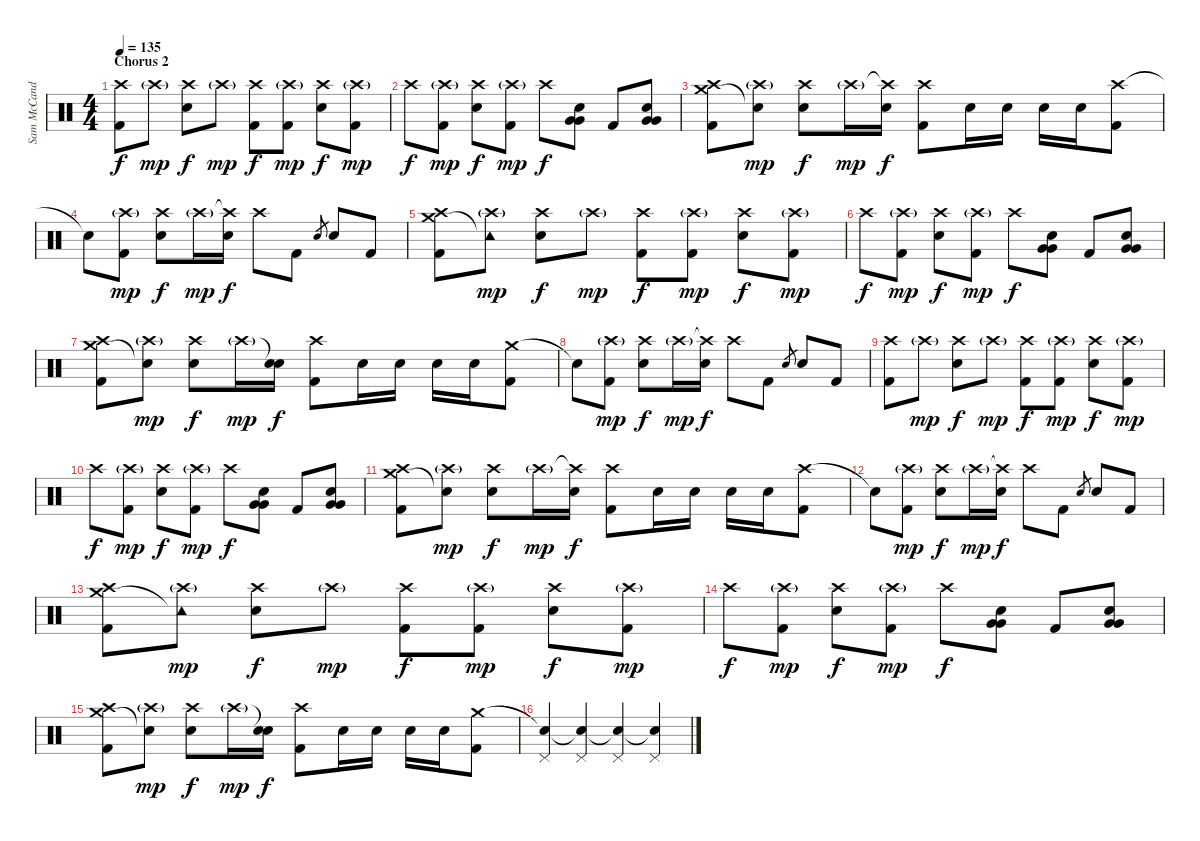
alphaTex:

\track ("Sam McCandless (Drums)" "Sam McCand") {instrument percussion}
\staff {score}
\articulation defaults
\ts (4 4)
\section ("" "Chorus 2")
\tempo 135
\clef neutral
\ks c
("Crash high (hit)" "Kick (hit) 2").8{dy f} "Crash high (hit)"{g}.8{dy mp} ("Crash high (hit)" "Electric Snare (hit)").8{dy f} "Crash high (hit)"{g}.8{dy mp} ("Crash high (hit)" "Kick (hit) 2").8{dy f} ("Crash high (hit)"{g} "Kick (hit) 2").8{dy mp} ("Crash high (hit)" "Electric Snare (hit)").8{dy f} ("Crash high (hit)"{g} "Kick (hit) 2").8{dy mp} |
"Crash high (hit)".8{dy f} ("Crash high (hit)"{g} "Kick (hit) 2").8{dy mp} ("Crash high (hit)" "Electric Snare (hit)").8{dy f} ("Crash high (hit)"{g} "Kick (hit) 2").8{dy mp} "Crash high (hit)".8{dy f} ("Electric Snare (hit)" "Very Low Tom (hit)" "Very Low Tom (hit)").8 "Kick (hit) 2".8 ("Electric Snare (hit)" "Very Low Tom (hit)" "Very Low Tom (hit)").8 |
("Crash high (hit)" "Crash medium (hit)" "Kick (hit) 2").8 ("Crash high (hit)"{g} "Snare (hit)"{t}).8{dy mp} ("Crash high (hit)" "Electric Snare (hit)").8{dy f} "Crash high (hit)"{g}.16{dy mp} ("Crash high (hit)"{t} "Electric Snare (hit)").16{dy f} ("Crash high (hit)" "Kick (hit) 2").8 "Electric Snare (hit)".16 "Electric Snare (hit)".16 "Electric Snare (hit)".16 "Electric Snare (hit)".16 ("Crash high (hit)" "Kick (hit) 2").8 |
"Snare (hit)"{t}.8 ("Crash high (hit)"{g} "Kick (hit) 2").8{dy mp} ("Crash high (hit)" "Electric Snare (hit)").8{dy f} "Crash high (hit)"{g}.16{dy mp} ("Crash high (hit)"{t} "Electric Snare (hit)").16{dy f} "Crash high (hit)".8 "Kick (hit) 2".8 "Electric Snare (hit)".8{gr} "Electric Snare (hit)".8 "Kick (hit) 2".8 |
("Crash high (hit)" "Crash medium (hit)" "Kick (hit) 2").8 ("Crash high (hit)"{g} "Tambourine (hit)"{t}).8{dy mp} ("Crash high (hit)" "Electric Snare (hit)").8{dy f} "Crash high (hit)"{g}.8{dy mp} ("Crash high (hit)" "Kick (hit) 2").8{dy f} ("Crash high (hit)"{g} "Kick (hit) 2").8{dy mp} ("Crash high (hit)" "Electric Snare (hit)").8{dy f} ("Crash high (hit)"{g} "Kick (hit) 2").8{dy mp} |
"Crash high (hit)".8{dy f} ("Crash high (hit)"{g} "Kick (hit) 2").8{dy mp} ("Crash high (hit)" "Electric Snare (hit)").8{dy f} ("Crash high (hit)"{g} "Kick (hit) 2").8{dy mp} "Crash high (hit)".8{dy f} ("Electric Snare (hit)" "Very Low Tom (hit)" "Very Low Tom (hit)").8 "Kick (hit) 2".8 ("Electric Snare (hit)" "Very Low Tom (hit)" "Very Low Tom (hit)").8 |
("Crash high (hit)" "Crash medium (hit)" "Kick (hit) 2").8 ("Crash high (hit)"{g} "Snare (hit)"{t}).8{dy mp} ("Crash high (hit)" "Electric Snare (hit)").8{dy f} "Crash high (hit)"{g}.16{dy mp} ("Snare (hit)"{t} "Electric Snare (hit)").16{dy f} ("Crash high (hit)" "Kick (hit) 2").8 "Electric Snare (hit)".16 "Electric Snare (hit)".16 "Electric Snare (hit)".16 "Electric Snare (hit)".16 ("Crash medium (hit)" "Kick (hit) 2").8 |
"Snare (hit)"{t}.8 ("Crash high (hit)"{g} "Kick (hit) 2").8{dy mp} ("Crash high (hit)" "Electric Snare (hit)").8{dy f} "Crash high (hit)"{g}.16{dy mp} ("Crash high (hit)"{t} "Electric Snare (hit)").16{dy f} "Crash high (hit)".8 "Kick (hit) 2".8 "Electric Snare (hit)".8{gr} "Electric Snare (hit)".8 "Kick (hit) 2".8 |
("Crash high (hit)" "Kick (hit) 2").8 "Crash high (hit)"{g}.8{dy mp} ("Crash high (hit)" "Electric Snare (hit)").8{dy f} "Crash high (hit)"{g}.8{dy mp} ("Crash high (hit)" "Kick (hit) 2").8{dy f} ("Crash high (hit)"{g} "Kick (hit) 2").8{dy mp} ("Crash high (hit)" "Electric Snare (hit)").8{dy f} ("Crash high (hit)"{g} "Kick (hit) 2").8{dy mp} |
"Crash high (hit)".8{dy f} ("Crash high (hit)"{g} "Kick (hit) 2").8{dy mp} ("Crash high (hit)" "Electric Snare (hit)").8{dy f} ("Crash high (hit)"{g} "Kick (hit) 2").8{dy mp} "Crash high (hit)".8{dy f} ("Electric Snare (hit)" "Very Low Tom (hit)" "Very Low Tom (hit)").8 "Kick (hit) 2".8 ("Electric Snare (hit)" "Very Low Tom (hit)" "Very Low Tom (hit)").8 |
("Crash high (hit)" "Crash medium (hit)" "Kick (hit) 2").8 ("Crash high (hit)"{g} "Snare (hit)"{t}).8{dy mp} ("Crash high (hit)" "Electric Snare (hit)").8{dy f} "Crash high (hit)"{g}.16{dy mp} ("Crash high (hit)"{t} "Electric Snare (hit)").16{dy f} ("Crash high (hit)" "Kick (hit) 2").8 "Electric Snare (hit)".16 "Electric Snare (hit)".16 "Electric Snare (hit)".16 "Electric Snare (hit)".16 ("Crash high (hit)" "Kick (hit) 2").8 |
"Snare (hit)"{t}.8 ("Crash high (hit)"{g} "Kick (hit) 2").8{dy mp} ("Crash high (hit)" "Electric Snare (hit)").8{dy f} "Crash high (hit)"{g}.16{dy mp} ("Crash high (hit)"{t} "Electric Snare (hit)").16{dy f} "Crash high (hit)".8 "Kick (hit) 2".8 "Electric Snare (hit)".8{gr} "Electric Snare (hit)".8 "Kick (hit) 2".8 |
("Crash high (hit)" "Crash medium (hit)" "Kick (hit) 2").8 ("Crash high (hit)"{g} "Tambourine (hit)"{t}).8{dy mp} ("Crash high (hit)" "Electric Snare (hit)").8{dy f} "Crash high (hit)"{g}.8{dy mp} ("Crash high (hit)" "Kick (hit) 2").8{dy f} ("Crash high (hit)"{g} "Kick (hit) 2").8{dy mp} ("Crash high (hit)" "Electric Snare (hit)").8{dy f} ("Crash high (hit)"{g} "Kick (hit) 2").8{dy mp} |
"Crash high (hit)".8{dy f} ("Crash high (hit)"{g} "Kick (hit) 2").8{dy mp} ("Crash high (hit)" "Electric Snare (hit)").8{dy f} ("Crash high (hit)"{g} "Kick (hit) 2").8{dy mp} "Crash high (hit)".8{dy f} ("Electric Snare (hit)" "Very Low Tom (hit)" "Very Low Tom (hit)").8 "Kick (hit) 2".8 ("Electric Snare (hit)" "Very Low Tom (hit)" "Very Low Tom (hit)").8 |
("Crash high (hit)" "Crash medium (hit)" "Kick (hit) 2").8 ("Crash high (hit)"{g} "Snare (hit)"{t}).8{dy mp} ("Crash high (hit)" "Electric Snare (hit)").8{dy f} "Crash high (hit)"{g}.16{dy mp} ("Snare (hit)"{t} "Electric Snare (hit)").16{dy f} ("Crash high (hit)" "Kick (hit) 2").8 "Electric Snare (hit)".16 "Electric Snare (hit)".16 "Electric Snare (hit)".16 "Electric Snare (hit)".16 ("Crash medium (hit)" "Kick (hit) 2").8 |
("Snare (hit)"{t} "Pedal Hi-Hat (hit)").4 ("Snare (hit)"{t} "Pedal Hi-Hat (hit)").4 ("Snare (hit)"{t} "Pedal Hi-Hat (hit)").4 ("Snare (hit)"{t} "Pedal Hi-Hat (hit)").4
